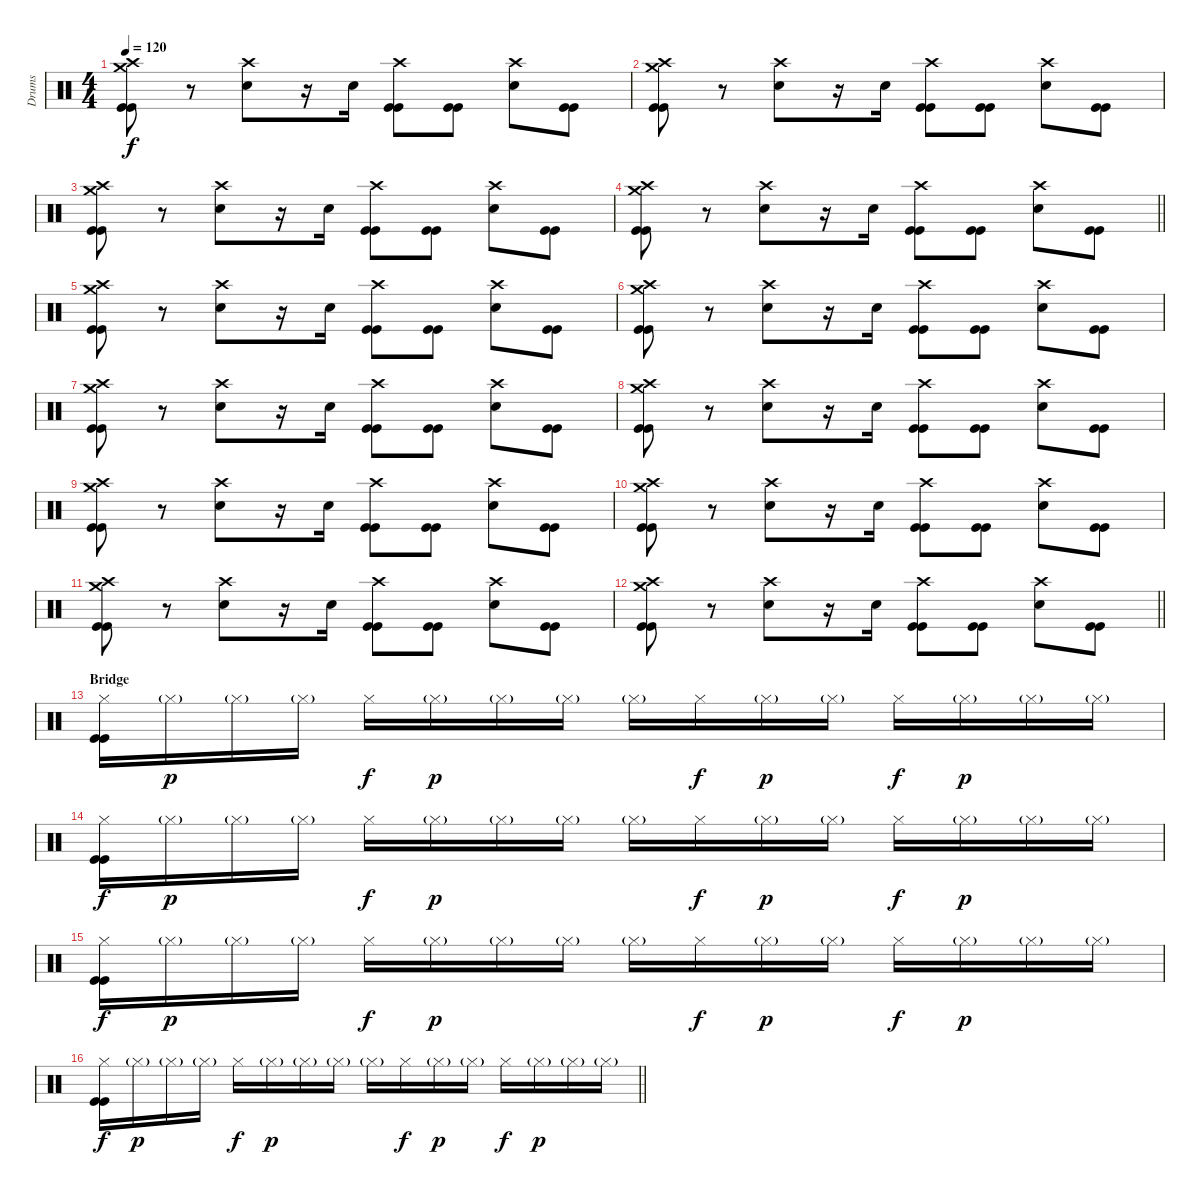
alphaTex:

\track ("Drums" "Drums") {instrument percussion}
\staff {score}
\articulation defaults
\ts (4 4)
\tempo 120
\clef neutral
\ks c
("Crash high (hit)" "Kick (hit)" "Kick (hit)" "Crash medium (hit)").8{dy f} r.8 ("Crash high (hit)" "Snare (hit) 2").8 r.16 "Snare (hit) 2".16 ("Crash high (hit)" "Kick (hit)" "Kick (hit)").8 ("Kick (hit)" "Kick (hit)").8 ("Crash high (hit)" "Snare (hit) 2").8 ("Kick (hit)" "Kick (hit)").8 |
("Crash high (hit)" "Kick (hit)" "Kick (hit)" "Crash medium (hit)").8 r.8 ("Crash high (hit)" "Snare (hit) 2").8 r.16 "Snare (hit) 2".16 ("Crash high (hit)" "Kick (hit)" "Kick (hit)").8 ("Kick (hit)" "Kick (hit)").8 ("Crash high (hit)" "Snare (hit) 2").8 ("Kick (hit)" "Kick (hit)").8 |
("Crash high (hit)" "Kick (hit)" "Kick (hit)" "Crash medium (hit)").8 r.8 ("Crash high (hit)" "Snare (hit) 2").8 r.16 "Snare (hit) 2".16 ("Crash high (hit)" "Kick (hit)" "Kick (hit)").8 ("Kick (hit)" "Kick (hit)").8 ("Crash high (hit)" "Snare (hit) 2").8 ("Kick (hit)" "Kick (hit)").8 |
\barLineRight lightlight
("Crash high (hit)" "Kick (hit)" "Kick (hit)" "Crash medium (hit)").8 r.8 ("Crash high (hit)" "Snare (hit) 2").8 r.16 "Snare (hit) 2".16 ("Crash high (hit)" "Kick (hit)" "Kick (hit)").8 ("Kick (hit)" "Kick (hit)").8 ("Crash high (hit)" "Snare (hit) 2").8 ("Kick (hit)" "Kick (hit)").8 |
("Crash high (hit)" "Kick (hit)" "Kick (hit)" "Crash medium (hit)").8 r.8 ("Crash high (hit)" "Snare (hit) 2").8 r.16 "Snare (hit) 2".16 ("Crash high (hit)" "Kick (hit)" "Kick (hit)").8 ("Kick (hit)" "Kick (hit)").8 ("Crash high (hit)" "Snare (hit) 2").8 ("Kick (hit)" "Kick (hit)").8 |
("Crash high (hit)" "Kick (hit)" "Kick (hit)" "Crash medium (hit)").8 r.8 ("Crash high (hit)" "Snare (hit) 2").8 r.16 "Snare (hit) 2".16 ("Crash high (hit)" "Kick (hit)" "Kick (hit)").8 ("Kick (hit)" "Kick (hit)").8 ("Crash high (hit)" "Snare (hit) 2").8 ("Kick (hit)" "Kick (hit)").8 |
("Crash high (hit)" "Kick (hit)" "Kick (hit)" "Crash medium (hit)").8 r.8 ("Crash high (hit)" "Snare (hit) 2").8 r.16 "Snare (hit) 2".16 ("Crash high (hit)" "Kick (hit)" "Kick (hit)").8 ("Kick (hit)" "Kick (hit)").8 ("Crash high (hit)" "Snare (hit) 2").8 ("Kick (hit)" "Kick (hit)").8 |
("Crash high (hit)" "Kick (hit)" "Kick (hit)" "Crash medium (hit)").8 r.8 ("Crash high (hit)" "Snare (hit) 2").8 r.16 "Snare (hit) 2".16 ("Crash high (hit)" "Kick (hit)" "Kick (hit)").8 ("Kick (hit)" "Kick (hit)").8 ("Crash high (hit)" "Snare (hit) 2").8 ("Kick (hit)" "Kick (hit)").8 |
("Crash high (hit)" "Kick (hit)" "Kick (hit)" "Crash medium (hit)").8 r.8 ("Crash high (hit)" "Snare (hit) 2").8 r.16 "Snare (hit) 2".16 ("Crash high (hit)" "Kick (hit)" "Kick (hit)").8 ("Kick (hit)" "Kick (hit)").8 ("Crash high (hit)" "Snare (hit) 2").8 ("Kick (hit)" "Kick (hit)").8 |
("Crash high (hit)" "Kick (hit)" "Kick (hit)" "Crash medium (hit)").8 r.8 ("Crash high (hit)" "Snare (hit) 2").8 r.16 "Snare (hit) 2".16 ("Crash high (hit)" "Kick (hit)" "Kick (hit)").8 ("Kick (hit)" "Kick (hit)").8 ("Crash high (hit)" "Snare (hit) 2").8 ("Kick (hit)" "Kick (hit)").8 |
("Crash high (hit)" "Kick (hit)" "Kick (hit)" "Crash medium (hit)").8 r.8 ("Crash high (hit)" "Snare (hit) 2").8 r.16 "Snare (hit) 2".16 ("Crash high (hit)" "Kick (hit)" "Kick (hit)").8 ("Kick (hit)" "Kick (hit)").8 ("Crash high (hit)" "Snare (hit) 2").8 ("Kick (hit)" "Kick (hit)").8 |
\barLineRight lightlight
("Crash high (hit)" "Kick (hit)" "Kick (hit)" "Crash medium (hit)").8 r.8 ("Crash high (hit)" "Snare (hit) 2").8 r.16 "Snare (hit) 2".16 ("Crash high (hit)" "Kick (hit)" "Kick (hit)").8 ("Kick (hit)" "Kick (hit)").8 ("Crash high (hit)" "Snare (hit) 2").8 ("Kick (hit)" "Kick (hit)").8 |
\section ("" "Bridge")
("Hi-Hat (closed)" "Kick (hit)" "Kick (hit)").16 "Hi-Hat (closed)"{g}.16{dy p} "Hi-Hat (closed)"{g}.16 "Hi-Hat (closed)"{g}.16 "Hi-Hat (closed)".16{dy f} "Hi-Hat (closed)"{g}.16{dy p} "Hi-Hat (closed)"{g}.16 "Hi-Hat (closed)"{g}.16 "Hi-Hat (closed)"{g}.16 "Hi-Hat (closed)".16{dy f} "Hi-Hat (closed)"{g}.16{dy p} "Hi-Hat (closed)"{g}.16 "Hi-Hat (closed)".16{dy f} "Hi-Hat (closed)"{g}.16{dy p} "Hi-Hat (closed)"{g}.16 "Hi-Hat (closed)"{g}.16 |
("Hi-Hat (closed)" "Kick (hit)" "Kick (hit)").16{dy f} "Hi-Hat (closed)"{g}.16{dy p} "Hi-Hat (closed)"{g}.16 "Hi-Hat (closed)"{g}.16 "Hi-Hat (closed)".16{dy f} "Hi-Hat (closed)"{g}.16{dy p} "Hi-Hat (closed)"{g}.16 "Hi-Hat (closed)"{g}.16 "Hi-Hat (closed)"{g}.16 "Hi-Hat (closed)".16{dy f} "Hi-Hat (closed)"{g}.16{dy p} "Hi-Hat (closed)"{g}.16 "Hi-Hat (closed)".16{dy f} "Hi-Hat (closed)"{g}.16{dy p} "Hi-Hat (closed)"{g}.16 "Hi-Hat (closed)"{g}.16 |
("Hi-Hat (closed)" "Kick (hit)" "Kick (hit)").16{dy f} "Hi-Hat (closed)"{g}.16{dy p} "Hi-Hat (closed)"{g}.16 "Hi-Hat (closed)"{g}.16 "Hi-Hat (closed)".16{dy f} "Hi-Hat (closed)"{g}.16{dy p} "Hi-Hat (closed)"{g}.16 "Hi-Hat (closed)"{g}.16 "Hi-Hat (closed)"{g}.16 "Hi-Hat (closed)".16{dy f} "Hi-Hat (closed)"{g}.16{dy p} "Hi-Hat (closed)"{g}.16 "Hi-Hat (closed)".16{dy f} "Hi-Hat (closed)"{g}.16{dy p} "Hi-Hat (closed)"{g}.16 "Hi-Hat (closed)"{g}.16 |
\barLineRight lightlight
("Hi-Hat (closed)" "Kick (hit)" "Kick (hit)").16{dy f} "Hi-Hat (closed)"{g}.16{dy p} "Hi-Hat (closed)"{g}.16 "Hi-Hat (closed)"{g}.16 "Hi-Hat (closed)".16{dy f} "Hi-Hat (closed)"{g}.16{dy p} "Hi-Hat (closed)"{g}.16 "Hi-Hat (closed)"{g}.16 "Hi-Hat (closed)"{g}.16 "Hi-Hat (closed)".16{dy f} "Hi-Hat (closed)"{g}.16{dy p} "Hi-Hat (closed)"{g}.16 "Hi-Hat (closed)".16{dy f} "Hi-Hat (closed)"{g}.16{dy p} "Hi-Hat (closed)"{g}.16 "Hi-Hat (closed)"{g}.16
